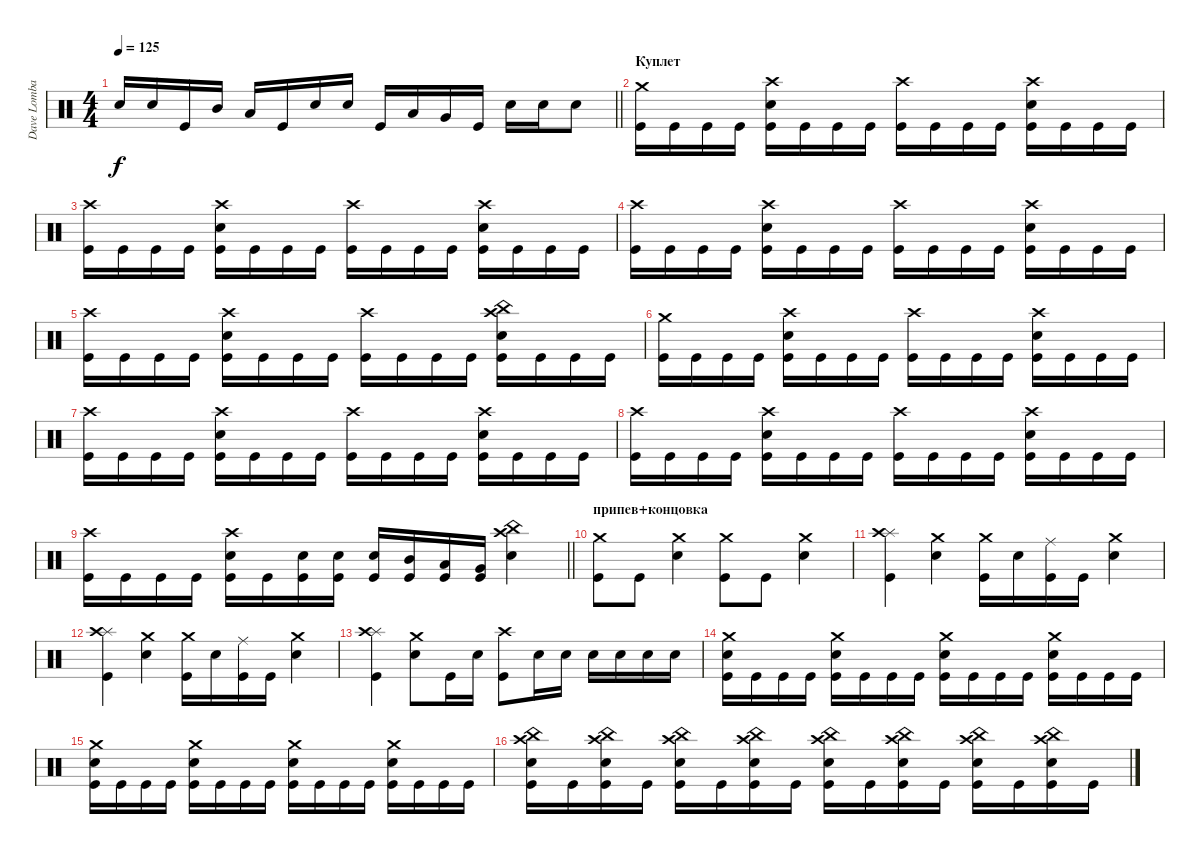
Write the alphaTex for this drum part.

\track ("Dave Lombardo" "Dave Lomba") {instrument percussion}
\staff {score}
\articulation defaults
\ts (4 4)
\tempo 125
\clef neutral
\barLineRight lightlight
\ks c "Snare (hit) 2".16{dy f} "Snare (hit) 2".16 "Kick (hit)".16 "Mid Tom (hit)".16 "Low Tom (hit)".16 "Kick (hit)".16 "Snare (hit) 2".16 "Snare (hit) 2".16 "Kick (hit)".16 "Low Tom (hit)".16 "Very Low Tom (hit)".16 "Kick (hit)".16 "Snare (hit) 2".16 "Snare (hit) 2".16 "Snare (hit) 2".8
|
\section ("" "Куплет")
("Crash medium (hit)" "Kick (hit)").16 "Kick (hit)".16 "Kick (hit)".16 "Kick (hit)".16 ("Crash high (hit)" "Snare (hit) 2" "Kick (hit)").16 "Kick (hit)".16 "Kick (hit)".16 "Kick (hit)".16 ("Crash high (hit)" "Kick (hit)").16 "Kick (hit)".16 "Kick (hit)".16 "Kick (hit)".16 ("Crash high (hit)" "Snare (hit) 2" "Kick (hit)").16 "Kick (hit)".16 "Kick (hit)".16 "Kick (hit)".16 |
("Crash high (hit)" "Kick (hit)").16 "Kick (hit)".16 "Kick (hit)".16 "Kick (hit)".16 ("Crash high (hit)" "Snare (hit) 2" "Kick (hit)").16 "Kick (hit)".16 "Kick (hit)".16 "Kick (hit)".16 ("Crash high (hit)" "Kick (hit)").16 "Kick (hit)".16 "Kick (hit)".16 "Kick (hit)".16 ("Crash high (hit)" "Snare (hit) 2" "Kick (hit)").16 "Kick (hit)".16 "Kick (hit)".16 "Kick (hit)".16 |
("Crash high (hit)" "Kick (hit)").16 "Kick (hit)".16 "Kick (hit)".16 "Kick (hit)".16 ("Crash high (hit)" "Snare (hit) 2" "Kick (hit)").16 "Kick (hit)".16 "Kick (hit)".16 "Kick (hit)".16 ("Crash high (hit)" "Kick (hit)").16 "Kick (hit)".16 "Kick (hit)".16 "Kick (hit)".16 ("Crash high (hit)" "Snare (hit) 2" "Kick (hit)").16 "Kick (hit)".16 "Kick (hit)".16 "Kick (hit)".16 |
("Crash high (hit)" "Kick (hit)").16 "Kick (hit)".16 "Kick (hit)".16 "Kick (hit)".16 ("Crash high (hit)" "Snare (hit) 2" "Kick (hit)").16 "Kick (hit)".16 "Kick (hit)".16 "Kick (hit)".16 ("Crash high (hit)" "Kick (hit)").16 "Kick (hit)".16 "Kick (hit)".16 "Kick (hit)".16 ("China (hit)" "Crash high (hit)" "Snare (hit) 2" "Kick (hit)").16 "Kick (hit)".16 "Kick (hit)".16 "Kick (hit)".16 |
("Crash medium (hit)" "Kick (hit)").16 "Kick (hit)".16 "Kick (hit)".16 "Kick (hit)".16 ("Crash high (hit)" "Snare (hit) 2" "Kick (hit)").16 "Kick (hit)".16 "Kick (hit)".16 "Kick (hit)".16 ("Crash high (hit)" "Kick (hit)").16 "Kick (hit)".16 "Kick (hit)".16 "Kick (hit)".16 ("Crash high (hit)" "Snare (hit) 2" "Kick (hit)").16 "Kick (hit)".16 "Kick (hit)".16 "Kick (hit)".16 |
("Crash high (hit)" "Kick (hit)").16 "Kick (hit)".16 "Kick (hit)".16 "Kick (hit)".16 ("Crash high (hit)" "Snare (hit) 2" "Kick (hit)").16 "Kick (hit)".16 "Kick (hit)".16 "Kick (hit)".16 ("Crash high (hit)" "Kick (hit)").16 "Kick (hit)".16 "Kick (hit)".16 "Kick (hit)".16 ("Crash high (hit)" "Snare (hit) 2" "Kick (hit)").16 "Kick (hit)".16 "Kick (hit)".16 "Kick (hit)".16 |
("Crash high (hit)" "Kick (hit)").16 "Kick (hit)".16 "Kick (hit)".16 "Kick (hit)".16 ("Crash high (hit)" "Snare (hit) 2" "Kick (hit)").16 "Kick (hit)".16 "Kick (hit)".16 "Kick (hit)".16 ("Crash high (hit)" "Kick (hit)").16 "Kick (hit)".16 "Kick (hit)".16 "Kick (hit)".16 ("Crash high (hit)" "Snare (hit) 2" "Kick (hit)").16 "Kick (hit)".16 "Kick (hit)".16 "Kick (hit)".16 |
\barLineRight lightlight
("Crash high (hit)" "Kick (hit)").16 "Kick (hit)".16 "Kick (hit)".16 "Kick (hit)".16 ("Crash high (hit)" "Snare (hit) 2" "Kick (hit)").16 "Kick (hit)".16 ("Snare (hit) 2" "Kick (hit)").16 ("Snare (hit) 2" "Kick (hit)").16 ("Snare (hit) 2" "Kick (hit)").16 ("Mid Tom (hit)" "Kick (hit)").16 ("Low Tom (hit)" "Kick (hit)").16 ("Very Low Tom (hit)" "Kick (hit)").16 ("China (hit)" "Crash high (hit)" "Snare (hit) 2").4 |
\section ("" "припев+концовка")
("Crash medium (hit)" "Kick (hit)").8 "Kick (hit)".8 ("Crash medium (hit)" "Snare (hit) 2").4 ("Crash medium (hit)" "Kick (hit)").8 "Kick (hit)".8 ("Crash medium (hit)" "Snare (hit) 2").4 |
("Splash (hit)" "Crash high (hit)" "Kick (hit)").4 ("Crash medium (hit)" "Snare (hit) 2").4 ("Crash medium (hit)" "Kick (hit)").16 "Snare (hit) 2".16 ("Ride (middle)" "Kick (hit)").16 "Kick (hit)".16 ("Crash medium (hit)" "Snare (hit) 2").4 |
("Splash (hit)" "Crash high (hit)" "Kick (hit)").4 ("Crash medium (hit)" "Snare (hit) 2").4 ("Crash medium (hit)" "Kick (hit)").16 "Snare (hit) 2".16 ("Ride (middle)" "Kick (hit)").16 "Kick (hit)".16 ("Crash medium (hit)" "Snare (hit) 2").4 |
("Splash (hit)" "Crash high (hit)" "Kick (hit)").4 ("Crash medium (hit)" "Snare (hit) 2").8 "Kick (hit)".16 "Snare (hit) 2".16 ("Crash high (hit)" "Kick (hit)").8 "Snare (hit) 2".16 "Snare (hit) 2".16 "Snare (hit) 2".16 "Snare (hit) 2".16 "Snare (hit) 2".16 "Snare (hit) 2".16 |
("Crash medium (hit)" "Snare (hit) 2" "Kick (hit)").16 "Kick (hit)".16 "Kick (hit)".16 "Kick (hit)".16 ("Crash medium (hit)" "Snare (hit) 2" "Kick (hit)").16 "Kick (hit)".16 "Kick (hit)".16 "Kick (hit)".16 ("Crash medium (hit)" "Snare (hit) 2" "Kick (hit)").16 "Kick (hit)".16 "Kick (hit)".16 "Kick (hit)".16 ("Crash medium (hit)" "Snare (hit) 2" "Kick (hit)").16 "Kick (hit)".16 "Kick (hit)".16 "Kick (hit)".16 |
("Crash medium (hit)" "Snare (hit) 2" "Kick (hit)").16 "Kick (hit)".16 "Kick (hit)".16 "Kick (hit)".16 ("Crash medium (hit)" "Snare (hit) 2" "Kick (hit)").16 "Kick (hit)".16 "Kick (hit)".16 "Kick (hit)".16 ("Crash medium (hit)" "Snare (hit) 2" "Kick (hit)").16 "Kick (hit)".16 "Kick (hit)".16 "Kick (hit)".16 ("Crash medium (hit)" "Snare (hit) 2" "Kick (hit)").16 "Kick (hit)".16 "Kick (hit)".16 "Kick (hit)".16 |
("China (hit)" "Crash high (hit)" "Snare (hit) 2" "Kick (hit)").16 "Kick (hit)".16 ("China (hit)" "Crash high (hit)" "Snare (hit) 2" "Kick (hit)").16 "Kick (hit)".16 ("China (hit)" "Crash high (hit)" "Snare (hit) 2" "Kick (hit)").16 "Kick (hit)".16 ("China (hit)" "Crash high (hit)" "Snare (hit) 2" "Kick (hit)").16 "Kick (hit)".16 ("China (hit)" "Crash high (hit)" "Snare (hit) 2" "Kick (hit)").16 "Kick (hit)".16 ("China (hit)" "Crash high (hit)" "Snare (hit) 2" "Kick (hit)").16 "Kick (hit)".16 ("China (hit)" "Crash high (hit)" "Snare (hit) 2" "Kick (hit)").16 "Kick (hit)".16 ("China (hit)" "Crash high (hit)" "Snare (hit) 2" "Kick (hit)").16 "Kick (hit)".16
